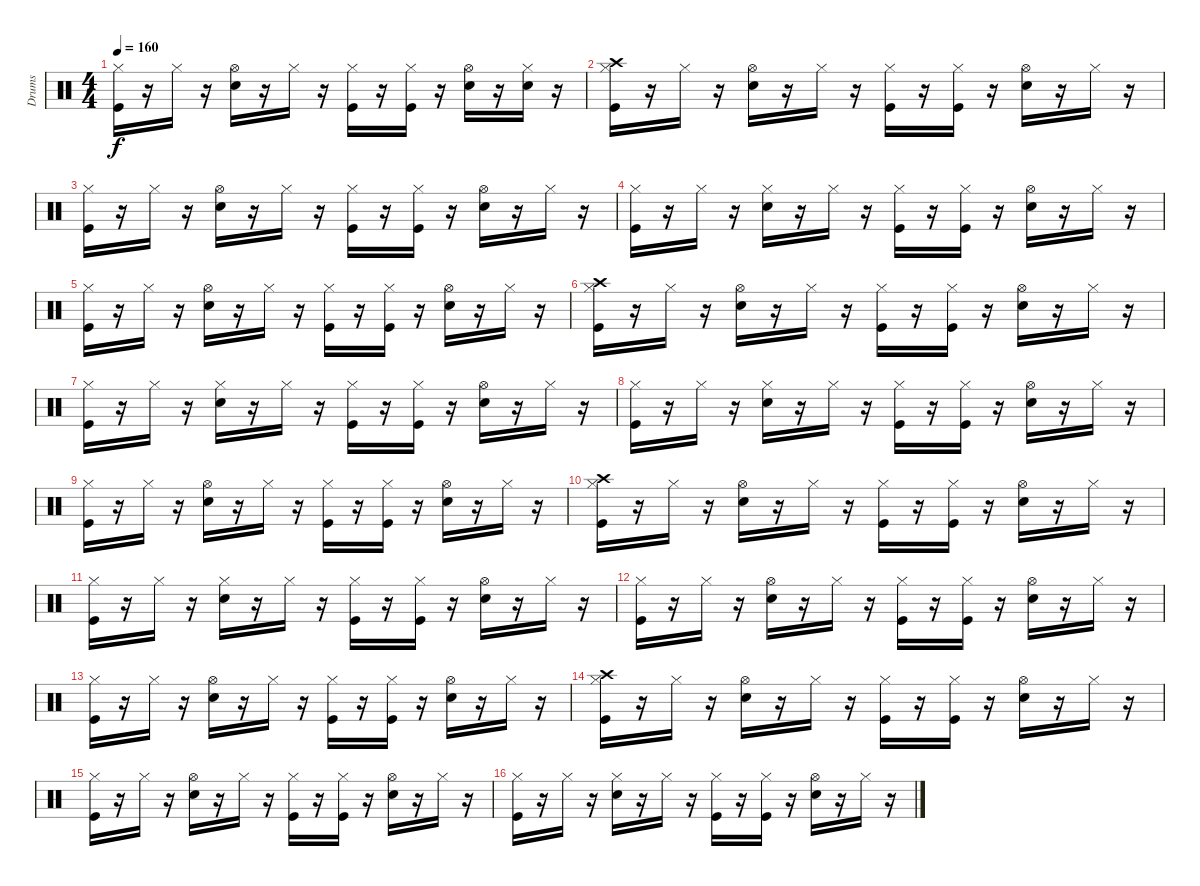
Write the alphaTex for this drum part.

\track ("Drums" "Drums") {instrument percussion}
\staff {score}
\articulation defaults
\ts (4 4)
\tempo 160
\clef neutral
\ks c
("Hi-Hat (closed)" "Kick (hit)").16{dy f} r.16 "Hi-Hat (closed)".16 r.16 ("Hi-Hat (open)" "Snare (hit) 2").16 r.16 "Hi-Hat (closed)".16 r.16 ("Hi-Hat (closed)" "Kick (hit)").16 r.16 ("Kick (hit)" "Hi-Hat (closed)").16 r.16 ("Hi-Hat (open)" "Snare (hit) 2").16 r.16 ("Snare (hit) 2" "Hi-Hat (closed)").16 r.16 |
("Crash high (hit)" "Hi-Hat (closed)" "Kick (hit)").16 r.16 "Hi-Hat (closed)".16 r.16 ("Hi-Hat (open)" "Snare (hit) 2").16 r.16 "Hi-Hat (closed)".16 r.16 ("Hi-Hat (closed)" "Kick (hit)").16 r.16 ("Kick (hit)" "Hi-Hat (closed)").16 r.16 ("Hi-Hat (open)" "Snare (hit) 2").16 r.16 "Hi-Hat (closed)".16 r.16 |
("Hi-Hat (closed)" "Kick (hit)").16 r.16 "Hi-Hat (closed)".16 r.16 ("Hi-Hat (open)" "Snare (hit) 2").16 r.16 "Hi-Hat (closed)".16 r.16 ("Hi-Hat (closed)" "Kick (hit)").16 r.16 ("Kick (hit)" "Hi-Hat (closed)").16 r.16 ("Hi-Hat (open)" "Snare (hit) 2").16 r.16 "Hi-Hat (closed)".16 r.16 |
("Hi-Hat (closed)" "Kick (hit)").16 r.16 "Hi-Hat (closed)".16 r.16 ("Hi-Hat (closed)" "Snare (hit) 2").16 r.16 "Hi-Hat (closed)".16 r.16 ("Hi-Hat (closed)" "Kick (hit)").16 r.16 ("Kick (hit)" "Hi-Hat (closed)").16 r.16 ("Hi-Hat (open)" "Snare (hit) 2").16 r.16 "Hi-Hat (closed)".16 r.16 |
("Hi-Hat (closed)" "Kick (hit)").16 r.16 "Hi-Hat (closed)".16 r.16 ("Hi-Hat (open)" "Snare (hit) 2").16 r.16 "Hi-Hat (closed)".16 r.16 ("Hi-Hat (closed)" "Kick (hit)").16 r.16 ("Kick (hit)" "Hi-Hat (closed)").16 r.16 ("Hi-Hat (open)" "Snare (hit) 2").16 r.16 "Hi-Hat (closed)".16 r.16 |
("Crash high (hit)" "Hi-Hat (closed)" "Kick (hit)").16 r.16 "Hi-Hat (closed)".16 r.16 ("Hi-Hat (open)" "Snare (hit) 2").16 r.16 "Hi-Hat (closed)".16 r.16 ("Hi-Hat (closed)" "Kick (hit)").16 r.16 ("Kick (hit)" "Hi-Hat (closed)").16 r.16 ("Hi-Hat (open)" "Snare (hit) 2").16 r.16 "Hi-Hat (closed)".16 r.16 |
("Hi-Hat (closed)" "Kick (hit)").16 r.16 "Hi-Hat (closed)".16 r.16 ("Hi-Hat (closed)" "Snare (hit) 2").16 r.16 "Hi-Hat (closed)".16 r.16 ("Hi-Hat (closed)" "Kick (hit)").16 r.16 ("Kick (hit)" "Hi-Hat (closed)").16 r.16 ("Hi-Hat (open)" "Snare (hit) 2").16 r.16 "Hi-Hat (closed)".16 r.16 |
("Hi-Hat (closed)" "Kick (hit)").16 r.16 "Hi-Hat (closed)".16 r.16 ("Hi-Hat (closed)" "Snare (hit) 2").16 r.16 "Hi-Hat (closed)".16 r.16 ("Hi-Hat (closed)" "Kick (hit)").16 r.16 ("Kick (hit)" "Hi-Hat (closed)").16 r.16 ("Hi-Hat (open)" "Snare (hit) 2").16 r.16 "Hi-Hat (closed)".16 r.16 |
("Hi-Hat (closed)" "Kick (hit)").16 r.16 "Hi-Hat (closed)".16 r.16 ("Hi-Hat (open)" "Snare (hit) 2").16 r.16 "Hi-Hat (closed)".16 r.16 ("Hi-Hat (closed)" "Kick (hit)").16 r.16 ("Kick (hit)" "Hi-Hat (closed)").16 r.16 ("Hi-Hat (open)" "Snare (hit) 2").16 r.16 "Hi-Hat (closed)".16 r.16 |
("Crash high (hit)" "Hi-Hat (closed)" "Kick (hit)").16 r.16 "Hi-Hat (closed)".16 r.16 ("Hi-Hat (open)" "Snare (hit) 2").16 r.16 "Hi-Hat (closed)".16 r.16 ("Hi-Hat (closed)" "Kick (hit)").16 r.16 ("Kick (hit)" "Hi-Hat (closed)").16 r.16 ("Hi-Hat (open)" "Snare (hit) 2").16 r.16 "Hi-Hat (closed)".16 r.16 |
("Hi-Hat (closed)" "Kick (hit)").16 r.16 "Hi-Hat (closed)".16 r.16 ("Hi-Hat (closed)" "Snare (hit) 2").16 r.16 "Hi-Hat (closed)".16 r.16 ("Hi-Hat (closed)" "Kick (hit)").16 r.16 ("Kick (hit)" "Hi-Hat (closed)").16 r.16 ("Hi-Hat (open)" "Snare (hit) 2").16 r.16 "Hi-Hat (closed)".16 r.16 |
("Hi-Hat (closed)" "Kick (hit)").16 r.16 "Hi-Hat (closed)".16 r.16 ("Hi-Hat (open)" "Snare (hit) 2").16 r.16 "Hi-Hat (closed)".16 r.16 ("Hi-Hat (closed)" "Kick (hit)").16 r.16 ("Kick (hit)" "Hi-Hat (closed)").16 r.16 ("Hi-Hat (open)" "Snare (hit) 2").16 r.16 "Hi-Hat (closed)".16 r.16 |
("Hi-Hat (closed)" "Kick (hit)").16 r.16 "Hi-Hat (closed)".16 r.16 ("Hi-Hat (open)" "Snare (hit) 2").16 r.16 "Hi-Hat (closed)".16 r.16 ("Hi-Hat (closed)" "Kick (hit)").16 r.16 ("Kick (hit)" "Hi-Hat (closed)").16 r.16 ("Hi-Hat (open)" "Snare (hit) 2").16 r.16 "Hi-Hat (closed)".16 r.16 |
("Crash high (hit)" "Hi-Hat (closed)" "Kick (hit)").16 r.16 "Hi-Hat (closed)".16 r.16 ("Hi-Hat (open)" "Snare (hit) 2").16 r.16 "Hi-Hat (closed)".16 r.16 ("Hi-Hat (closed)" "Kick (hit)").16 r.16 ("Kick (hit)" "Hi-Hat (closed)").16 r.16 ("Hi-Hat (open)" "Snare (hit) 2").16 r.16 "Hi-Hat (closed)".16 r.16 |
("Hi-Hat (closed)" "Kick (hit)").16 r.16 "Hi-Hat (closed)".16 r.16 ("Hi-Hat (open)" "Snare (hit) 2").16 r.16 "Hi-Hat (closed)".16 r.16 ("Hi-Hat (closed)" "Kick (hit)").16 r.16 ("Kick (hit)" "Hi-Hat (closed)").16 r.16 ("Hi-Hat (open)" "Snare (hit) 2").16 r.16 "Hi-Hat (closed)".16 r.16 |
("Hi-Hat (closed)" "Kick (hit)").16 r.16 "Hi-Hat (closed)".16 r.16 ("Hi-Hat (closed)" "Snare (hit) 2").16 r.16 "Hi-Hat (closed)".16 r.16 ("Hi-Hat (closed)" "Kick (hit)").16 r.16 ("Kick (hit)" "Hi-Hat (closed)").16 r.16 ("Hi-Hat (open)" "Snare (hit) 2").16 r.16 "Hi-Hat (closed)".16 r.16
